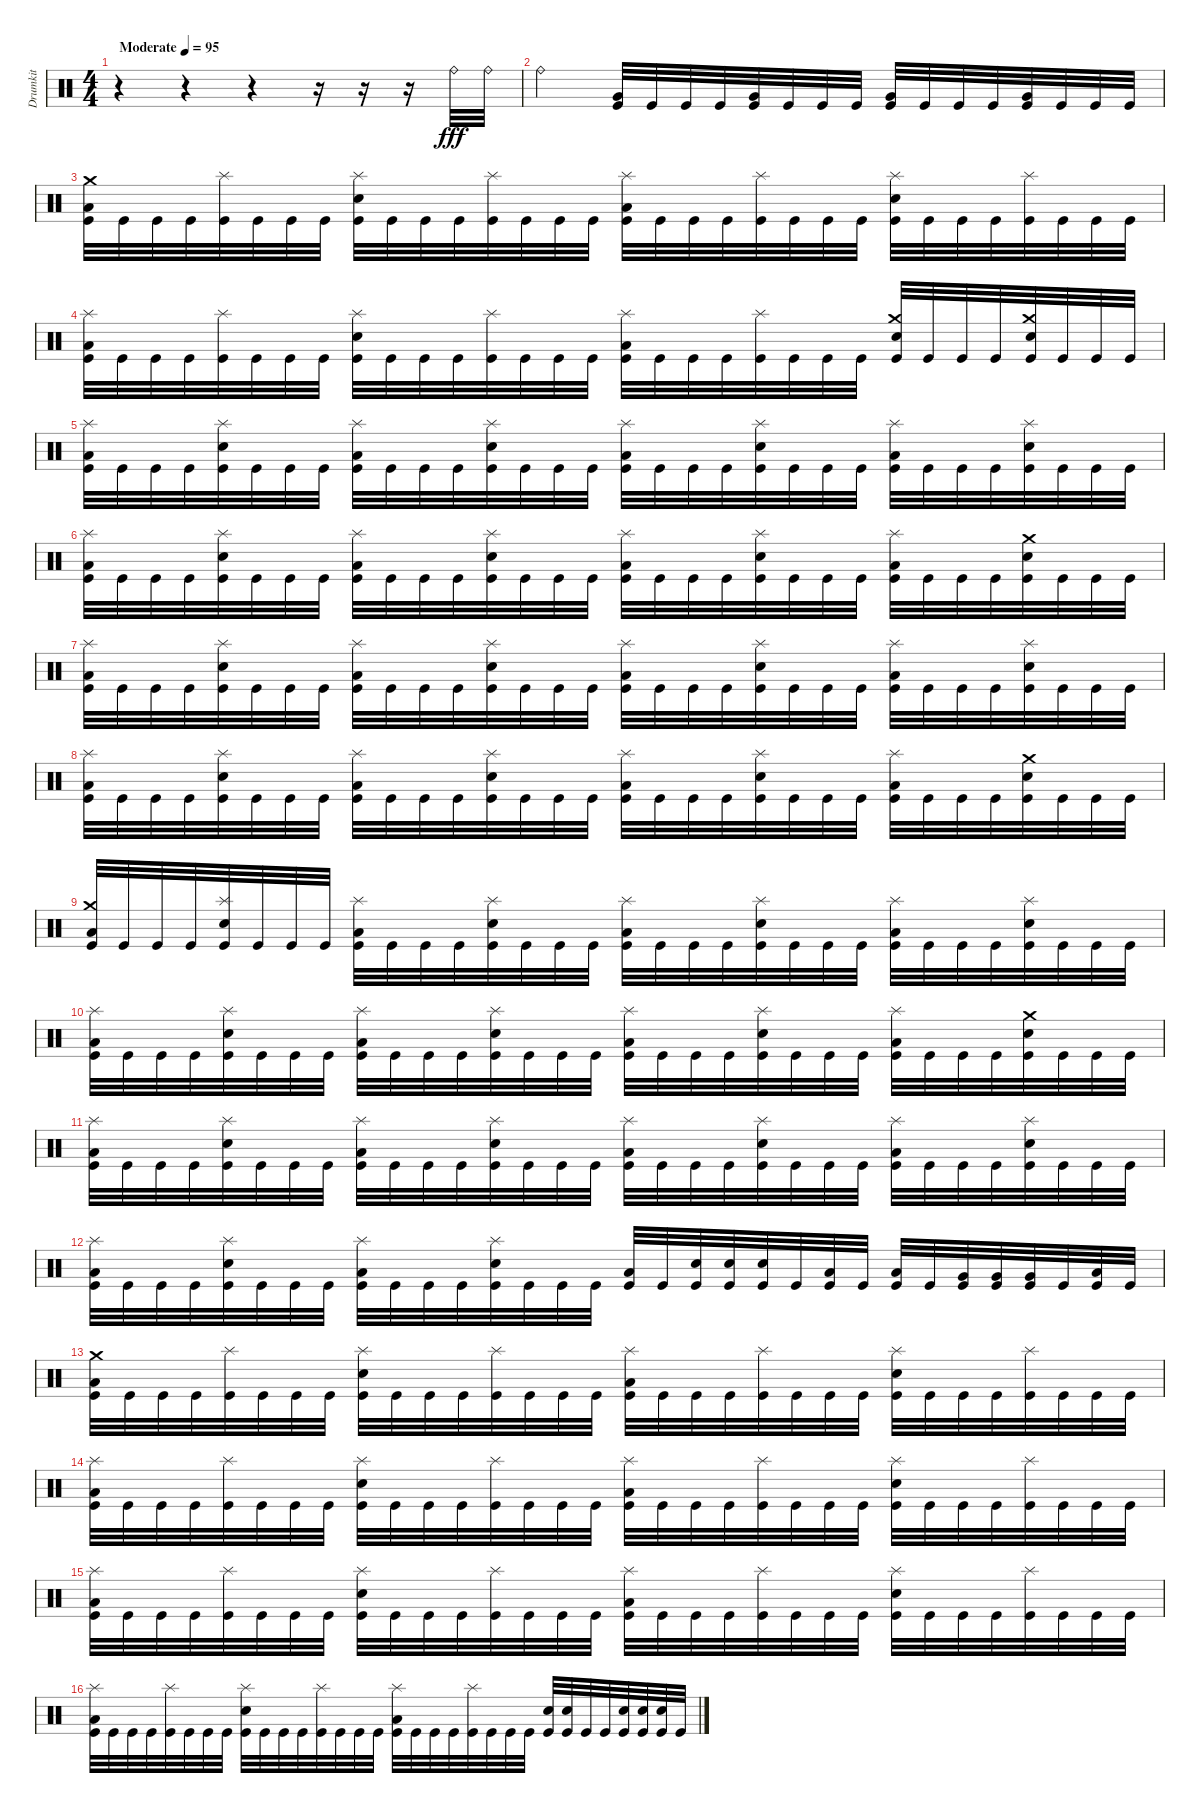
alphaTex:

\track ("Drumkit" "Drumkit") {instrument percussion}
\staff {score}
\articulation defaults
\ts (4 4)
\tempo (95 "Moderate")
\clef neutral
\ks c
r.4{dy fff} r.4 r.4 r.16 r.16 r.16 "Ride (bell)".32 "Ride (bell)".32 |
"Ride (bell)".2 ("Very Low Tom (hit)" "Kick (hit)").32 "Kick (hit)".32 "Kick (hit)".32 "Kick (hit)".32 ("Very Low Tom (hit)" "Kick (hit)").32 "Kick (hit)".32 "Kick (hit)".32 "Kick (hit)".32 ("Very Low Tom (hit)" "Kick (hit)").32 "Kick (hit)".32 "Kick (hit)".32 "Kick (hit)".32 ("Very Low Tom (hit)" "Kick (hit)").32 "Kick (hit)".32 "Kick (hit)".32 "Kick (hit)".32 |
("Crash medium (hit)" "Low Floor Tom (hit)" "Kick (hit)").32 "Kick (hit)".32 "Kick (hit)".32 "Kick (hit)".32 ("Splash (hit)" "Kick (hit)").32 "Kick (hit)".32 "Kick (hit)".32 "Kick (hit)".32 ("Splash (hit)" "Snare (hit) 2" "Kick (hit)").32 "Kick (hit)".32 "Kick (hit)".32 "Kick (hit)".32 ("Splash (hit)" "Kick (hit)").32 "Kick (hit)".32 "Kick (hit)".32 "Kick (hit)".32 ("Splash (hit)" "Low Floor Tom (hit)" "Kick (hit)").32 "Kick (hit)".32 "Kick (hit)".32 "Kick (hit)".32 ("Splash (hit)" "Kick (hit)").32 "Kick (hit)".32 "Kick (hit)".32 "Kick (hit)".32 ("Splash (hit)" "Snare (hit) 2" "Kick (hit)").32 "Kick (hit)".32 "Kick (hit)".32 "Kick (hit)".32 ("Splash (hit)" "Kick (hit)").32 "Kick (hit)".32 "Kick (hit)".32 "Kick (hit)".32 |
("Splash (hit)" "Low Floor Tom (hit)" "Kick (hit)").32 "Kick (hit)".32 "Kick (hit)".32 "Kick (hit)".32 ("Splash (hit)" "Kick (hit)").32 "Kick (hit)".32 "Kick (hit)".32 "Kick (hit)".32 ("Splash (hit)" "Snare (hit) 2" "Kick (hit)").32 "Kick (hit)".32 "Kick (hit)".32 "Kick (hit)".32 ("Splash (hit)" "Kick (hit)").32 "Kick (hit)".32 "Kick (hit)".32 "Kick (hit)".32 ("Splash (hit)" "Low Floor Tom (hit)" "Kick (hit)").32 "Kick (hit)".32 "Kick (hit)".32 "Kick (hit)".32 ("Splash (hit)" "Kick (hit)").32 "Kick (hit)".32 "Kick (hit)".32 "Kick (hit)".32 ("Crash medium (hit)" "Snare (hit) 2" "Kick (hit)").32 "Kick (hit)".32 "Kick (hit)".32 "Kick (hit)".32 ("Crash medium (hit)" "Snare (hit) 2" "Kick (hit)").32 "Kick (hit)".32 "Kick (hit)".32 "Kick (hit)".32 |
("Splash (hit)" "Low Floor Tom (hit)" "Kick (hit)").32 "Kick (hit)".32 "Kick (hit)".32 "Kick (hit)".32 ("Splash (hit)" "Snare (hit) 2" "Kick (hit)").32 "Kick (hit)".32 "Kick (hit)".32 "Kick (hit)".32 ("Splash (hit)" "Low Floor Tom (hit)" "Kick (hit)").32 "Kick (hit)".32 "Kick (hit)".32 "Kick (hit)".32 ("Splash (hit)" "Snare (hit) 2" "Kick (hit)").32 "Kick (hit)".32 "Kick (hit)".32 "Kick (hit)".32 ("Splash (hit)" "Low Floor Tom (hit)" "Kick (hit)").32 "Kick (hit)".32 "Kick (hit)".32 "Kick (hit)".32 ("Splash (hit)" "Snare (hit) 2" "Kick (hit)").32 "Kick (hit)".32 "Kick (hit)".32 "Kick (hit)".32 ("Splash (hit)" "Low Floor Tom (hit)" "Kick (hit)").32 "Kick (hit)".32 "Kick (hit)".32 "Kick (hit)".32 ("Splash (hit)" "Snare (hit) 2" "Kick (hit)").32 "Kick (hit)".32 "Kick (hit)".32 "Kick (hit)".32 |
("Splash (hit)" "Low Floor Tom (hit)" "Kick (hit)").32 "Kick (hit)".32 "Kick (hit)".32 "Kick (hit)".32 ("Splash (hit)" "Snare (hit) 2" "Kick (hit)").32 "Kick (hit)".32 "Kick (hit)".32 "Kick (hit)".32 ("Splash (hit)" "Low Floor Tom (hit)" "Kick (hit)").32 "Kick (hit)".32 "Kick (hit)".32 "Kick (hit)".32 ("Splash (hit)" "Snare (hit) 2" "Kick (hit)").32 "Kick (hit)".32 "Kick (hit)".32 "Kick (hit)".32 ("Splash (hit)" "Low Floor Tom (hit)" "Kick (hit)").32 "Kick (hit)".32 "Kick (hit)".32 "Kick (hit)".32 ("Splash (hit)" "Snare (hit) 2" "Kick (hit)").32 "Kick (hit)".32 "Kick (hit)".32 "Kick (hit)".32 ("Splash (hit)" "Low Floor Tom (hit)" "Kick (hit)").32 "Kick (hit)".32 "Kick (hit)".32 "Kick (hit)".32 ("Crash medium (hit)" "Snare (hit) 2" "Kick (hit)").32 "Kick (hit)".32 "Kick (hit)".32 "Kick (hit)".32 |
("Splash (hit)" "Low Floor Tom (hit)" "Kick (hit)").32 "Kick (hit)".32 "Kick (hit)".32 "Kick (hit)".32 ("Splash (hit)" "Snare (hit) 2" "Kick (hit)").32 "Kick (hit)".32 "Kick (hit)".32 "Kick (hit)".32 ("Splash (hit)" "Low Floor Tom (hit)" "Kick (hit)").32 "Kick (hit)".32 "Kick (hit)".32 "Kick (hit)".32 ("Splash (hit)" "Snare (hit) 2" "Kick (hit)").32 "Kick (hit)".32 "Kick (hit)".32 "Kick (hit)".32 ("Splash (hit)" "Low Floor Tom (hit)" "Kick (hit)").32 "Kick (hit)".32 "Kick (hit)".32 "Kick (hit)".32 ("Splash (hit)" "Snare (hit) 2" "Kick (hit)").32 "Kick (hit)".32 "Kick (hit)".32 "Kick (hit)".32 ("Splash (hit)" "Low Floor Tom (hit)" "Kick (hit)").32 "Kick (hit)".32 "Kick (hit)".32 "Kick (hit)".32 ("Splash (hit)" "Snare (hit) 2" "Kick (hit)").32 "Kick (hit)".32 "Kick (hit)".32 "Kick (hit)".32 |
("Splash (hit)" "Low Floor Tom (hit)" "Kick (hit)").32 "Kick (hit)".32 "Kick (hit)".32 "Kick (hit)".32 ("Splash (hit)" "Snare (hit) 2" "Kick (hit)").32 "Kick (hit)".32 "Kick (hit)".32 "Kick (hit)".32 ("Splash (hit)" "Low Floor Tom (hit)" "Kick (hit)").32 "Kick (hit)".32 "Kick (hit)".32 "Kick (hit)".32 ("Splash (hit)" "Snare (hit) 2" "Kick (hit)").32 "Kick (hit)".32 "Kick (hit)".32 "Kick (hit)".32 ("Splash (hit)" "Low Floor Tom (hit)" "Kick (hit)").32 "Kick (hit)".32 "Kick (hit)".32 "Kick (hit)".32 ("Splash (hit)" "Snare (hit) 2" "Kick (hit)").32 "Kick (hit)".32 "Kick (hit)".32 "Kick (hit)".32 ("Splash (hit)" "Low Floor Tom (hit)" "Kick (hit)").32 "Kick (hit)".32 "Kick (hit)".32 "Kick (hit)".32 ("Crash medium (hit)" "Snare (hit) 2" "Kick (hit)").32 "Kick (hit)".32 "Kick (hit)".32 "Kick (hit)".32 |
("Crash medium (hit)" "Low Floor Tom (hit)" "Kick (hit)").32 "Kick (hit)".32 "Kick (hit)".32 "Kick (hit)".32 ("Splash (hit)" "Snare (hit) 2" "Kick (hit)").32 "Kick (hit)".32 "Kick (hit)".32 "Kick (hit)".32 ("Splash (hit)" "Low Floor Tom (hit)" "Kick (hit)").32 "Kick (hit)".32 "Kick (hit)".32 "Kick (hit)".32 ("Splash (hit)" "Snare (hit) 2" "Kick (hit)").32 "Kick (hit)".32 "Kick (hit)".32 "Kick (hit)".32 ("Splash (hit)" "Low Floor Tom (hit)" "Kick (hit)").32 "Kick (hit)".32 "Kick (hit)".32 "Kick (hit)".32 ("Splash (hit)" "Snare (hit) 2" "Kick (hit)").32 "Kick (hit)".32 "Kick (hit)".32 "Kick (hit)".32 ("Splash (hit)" "Low Floor Tom (hit)" "Kick (hit)").32 "Kick (hit)".32 "Kick (hit)".32 "Kick (hit)".32 ("Splash (hit)" "Snare (hit) 2" "Kick (hit)").32 "Kick (hit)".32 "Kick (hit)".32 "Kick (hit)".32 |
("Splash (hit)" "Low Floor Tom (hit)" "Kick (hit)").32 "Kick (hit)".32 "Kick (hit)".32 "Kick (hit)".32 ("Splash (hit)" "Snare (hit) 2" "Kick (hit)").32 "Kick (hit)".32 "Kick (hit)".32 "Kick (hit)".32 ("Splash (hit)" "Low Floor Tom (hit)" "Kick (hit)").32 "Kick (hit)".32 "Kick (hit)".32 "Kick (hit)".32 ("Splash (hit)" "Snare (hit) 2" "Kick (hit)").32 "Kick (hit)".32 "Kick (hit)".32 "Kick (hit)".32 ("Splash (hit)" "Low Floor Tom (hit)" "Kick (hit)").32 "Kick (hit)".32 "Kick (hit)".32 "Kick (hit)".32 ("Splash (hit)" "Snare (hit) 2" "Kick (hit)").32 "Kick (hit)".32 "Kick (hit)".32 "Kick (hit)".32 ("Splash (hit)" "Low Floor Tom (hit)" "Kick (hit)").32 "Kick (hit)".32 "Kick (hit)".32 "Kick (hit)".32 ("Crash medium (hit)" "Snare (hit) 2" "Kick (hit)").32 "Kick (hit)".32 "Kick (hit)".32 "Kick (hit)".32 |
("Splash (hit)" "Low Floor Tom (hit)" "Kick (hit)").32 "Kick (hit)".32 "Kick (hit)".32 "Kick (hit)".32 ("Splash (hit)" "Snare (hit) 2" "Kick (hit)").32 "Kick (hit)".32 "Kick (hit)".32 "Kick (hit)".32 ("Splash (hit)" "Low Floor Tom (hit)" "Kick (hit)").32 "Kick (hit)".32 "Kick (hit)".32 "Kick (hit)".32 ("Splash (hit)" "Snare (hit) 2" "Kick (hit)").32 "Kick (hit)".32 "Kick (hit)".32 "Kick (hit)".32 ("Splash (hit)" "Low Floor Tom (hit)" "Kick (hit)").32 "Kick (hit)".32 "Kick (hit)".32 "Kick (hit)".32 ("Splash (hit)" "Snare (hit) 2" "Kick (hit)").32 "Kick (hit)".32 "Kick (hit)".32 "Kick (hit)".32 ("Splash (hit)" "Low Floor Tom (hit)" "Kick (hit)").32 "Kick (hit)".32 "Kick (hit)".32 "Kick (hit)".32 ("Splash (hit)" "Snare (hit) 2" "Kick (hit)").32 "Kick (hit)".32 "Kick (hit)".32 "Kick (hit)".32 |
("Splash (hit)" "Low Floor Tom (hit)" "Kick (hit)").32 "Kick (hit)".32 "Kick (hit)".32 "Kick (hit)".32 ("Splash (hit)" "Snare (hit) 2" "Kick (hit)").32 "Kick (hit)".32 "Kick (hit)".32 "Kick (hit)".32 ("Splash (hit)" "Low Floor Tom (hit)" "Kick (hit)").32 "Kick (hit)".32 "Kick (hit)".32 "Kick (hit)".32 ("Splash (hit)" "Snare (hit) 2" "Kick (hit)").32 "Kick (hit)".32 "Kick (hit)".32 "Kick (hit)".32 ("Low Floor Tom (hit)" "Kick (hit)").32 "Kick (hit)".32 ("Snare (hit) 2" "Kick (hit)").32 ("Snare (hit) 2" "Kick (hit)").32 ("Snare (hit) 2" "Kick (hit)").32 "Kick (hit)".32 ("Low Floor Tom (hit)" "Kick (hit)").32 "Kick (hit)".32 ("Low Floor Tom (hit)" "Kick (hit)").32 "Kick (hit)".32 ("Very Low Tom (hit)" "Kick (hit)").32 ("Very Low Tom (hit)" "Kick (hit)").32 ("Very Low Tom (hit)" "Kick (hit)").32 "Kick (hit)".32 ("Low Floor Tom (hit)" "Kick (hit)").32 "Kick (hit)".32 |
("Crash medium (hit)" "Low Floor Tom (hit)" "Kick (hit)").32 "Kick (hit)".32 "Kick (hit)".32 "Kick (hit)".32 ("Splash (hit)" "Kick (hit)").32 "Kick (hit)".32 "Kick (hit)".32 "Kick (hit)".32 ("Splash (hit)" "Snare (hit) 2" "Kick (hit)").32 "Kick (hit)".32 "Kick (hit)".32 "Kick (hit)".32 ("Splash (hit)" "Kick (hit)").32 "Kick (hit)".32 "Kick (hit)".32 "Kick (hit)".32 ("Splash (hit)" "Low Floor Tom (hit)" "Kick (hit)").32 "Kick (hit)".32 "Kick (hit)".32 "Kick (hit)".32 ("Splash (hit)" "Kick (hit)").32 "Kick (hit)".32 "Kick (hit)".32 "Kick (hit)".32 ("Splash (hit)" "Snare (hit) 2" "Kick (hit)").32 "Kick (hit)".32 "Kick (hit)".32 "Kick (hit)".32 ("Splash (hit)" "Kick (hit)").32 "Kick (hit)".32 "Kick (hit)".32 "Kick (hit)".32 |
("Splash (hit)" "Low Floor Tom (hit)" "Kick (hit)").32 "Kick (hit)".32 "Kick (hit)".32 "Kick (hit)".32 ("Splash (hit)" "Kick (hit)").32 "Kick (hit)".32 "Kick (hit)".32 "Kick (hit)".32 ("Splash (hit)" "Snare (hit) 2" "Kick (hit)").32 "Kick (hit)".32 "Kick (hit)".32 "Kick (hit)".32 ("Splash (hit)" "Kick (hit)").32 "Kick (hit)".32 "Kick (hit)".32 "Kick (hit)".32 ("Splash (hit)" "Low Floor Tom (hit)" "Kick (hit)").32 "Kick (hit)".32 "Kick (hit)".32 "Kick (hit)".32 ("Splash (hit)" "Kick (hit)").32 "Kick (hit)".32 "Kick (hit)".32 "Kick (hit)".32 ("Splash (hit)" "Snare (hit) 2" "Kick (hit)").32 "Kick (hit)".32 "Kick (hit)".32 "Kick (hit)".32 ("Splash (hit)" "Kick (hit)").32 "Kick (hit)".32 "Kick (hit)".32 "Kick (hit)".32 |
("Splash (hit)" "Low Floor Tom (hit)" "Kick (hit)").32 "Kick (hit)".32 "Kick (hit)".32 "Kick (hit)".32 ("Splash (hit)" "Kick (hit)").32 "Kick (hit)".32 "Kick (hit)".32 "Kick (hit)".32 ("Splash (hit)" "Snare (hit) 2" "Kick (hit)").32 "Kick (hit)".32 "Kick (hit)".32 "Kick (hit)".32 ("Splash (hit)" "Kick (hit)").32 "Kick (hit)".32 "Kick (hit)".32 "Kick (hit)".32 ("Splash (hit)" "Low Floor Tom (hit)" "Kick (hit)").32 "Kick (hit)".32 "Kick (hit)".32 "Kick (hit)".32 ("Splash (hit)" "Kick (hit)").32 "Kick (hit)".32 "Kick (hit)".32 "Kick (hit)".32 ("Splash (hit)" "Snare (hit) 2" "Kick (hit)").32 "Kick (hit)".32 "Kick (hit)".32 "Kick (hit)".32 ("Splash (hit)" "Kick (hit)").32 "Kick (hit)".32 "Kick (hit)".32 "Kick (hit)".32 |
("Splash (hit)" "Low Floor Tom (hit)" "Kick (hit)").32 "Kick (hit)".32 "Kick (hit)".32 "Kick (hit)".32 ("Splash (hit)" "Kick (hit)").32 "Kick (hit)".32 "Kick (hit)".32 "Kick (hit)".32 ("Splash (hit)" "Snare (hit) 2" "Kick (hit)").32 "Kick (hit)".32 "Kick (hit)".32 "Kick (hit)".32 ("Splash (hit)" "Kick (hit)").32 "Kick (hit)".32 "Kick (hit)".32 "Kick (hit)".32 ("Splash (hit)" "Low Floor Tom (hit)" "Kick (hit)").32 "Kick (hit)".32 "Kick (hit)".32 "Kick (hit)".32 ("Splash (hit)" "Kick (hit)").32 "Kick (hit)".32 "Kick (hit)".32 "Kick (hit)".32 ("Snare (hit) 2" "Kick (hit)").32 ("Snare (hit) 2" "Kick (hit)").32 "Kick (hit)".32 "Kick (hit)".32 ("Snare (hit) 2" "Kick (hit)").32 ("Snare (hit) 2" "Kick (hit)").32 ("Snare (hit) 2" "Kick (hit)").32 "Kick (hit)".32
